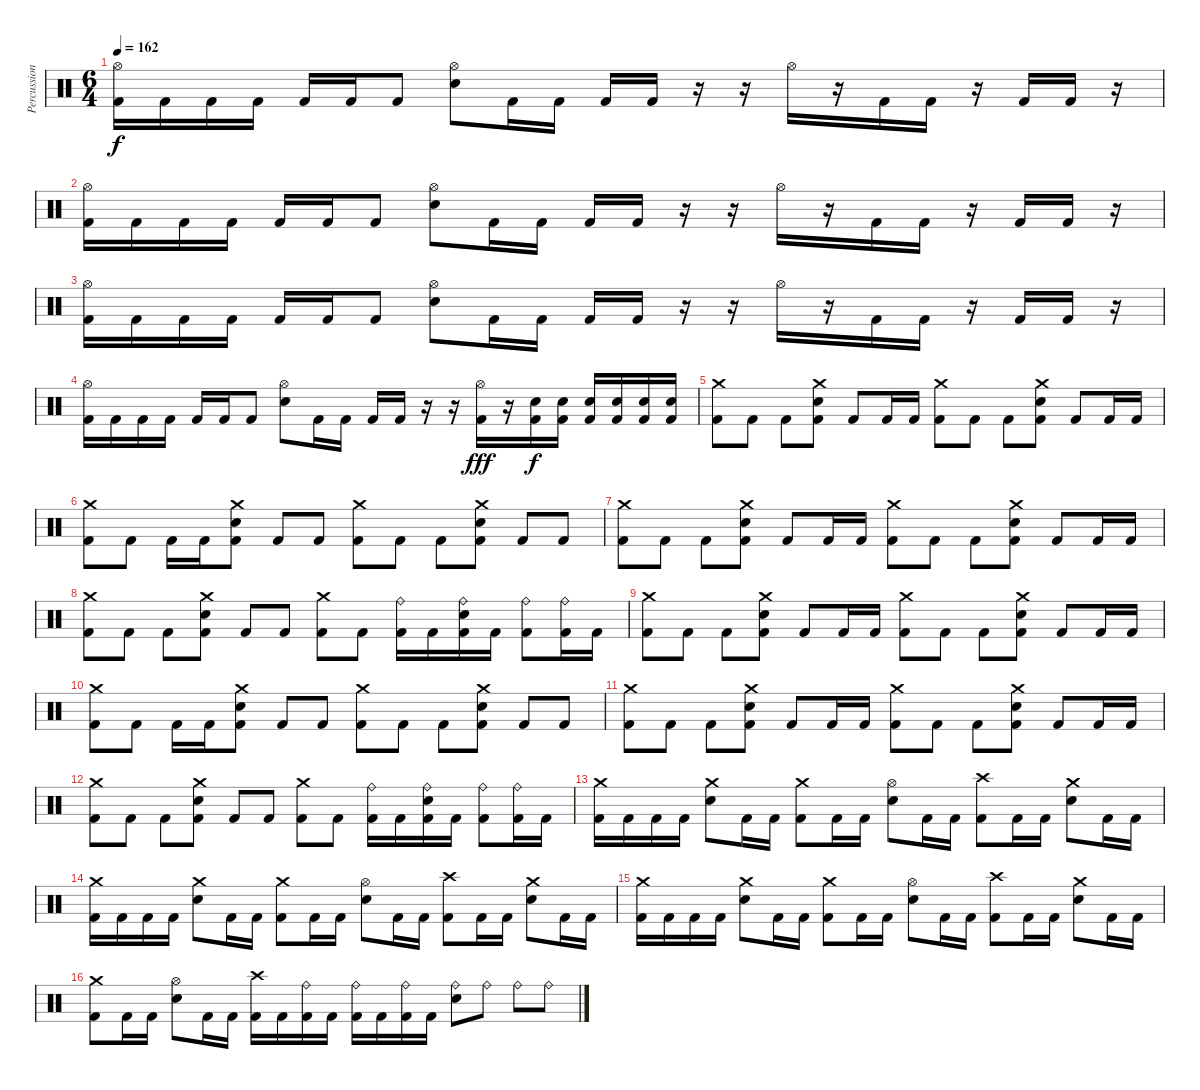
\track ("Percussion" "Percussion") {instrument percussion}
\staff {score}
\articulation defaults
\ts (6 4)
\tempo 162
\clef neutral
\ks c
("Hi-Hat (open)" "Kick (hit) 2").16{dy f} "Kick (hit) 2".16 "Kick (hit) 2".16 "Kick (hit) 2".16 "Kick (hit) 2".16 "Kick (hit) 2".16 "Kick (hit) 2".8 ("Hi-Hat (open)" "Electric Snare (hit)").8 "Kick (hit) 2".16 "Kick (hit) 2".16 "Kick (hit) 2".16 "Kick (hit) 2".16 r.16 r.16 "Hi-Hat (open)".16 r.16 "Kick (hit) 2".16 "Kick (hit) 2".16 r.16 "Kick (hit) 2".16 "Kick (hit) 2".16 r.16 |
("Hi-Hat (open)" "Kick (hit) 2").16 "Kick (hit) 2".16 "Kick (hit) 2".16 "Kick (hit) 2".16 "Kick (hit) 2".16 "Kick (hit) 2".16 "Kick (hit) 2".8 ("Hi-Hat (open)" "Electric Snare (hit)").8 "Kick (hit) 2".16 "Kick (hit) 2".16 "Kick (hit) 2".16 "Kick (hit) 2".16 r.16 r.16 "Hi-Hat (open)".16 r.16 "Kick (hit) 2".16 "Kick (hit) 2".16 r.16 "Kick (hit) 2".16 "Kick (hit) 2".16 r.16 |
("Hi-Hat (open)" "Kick (hit) 2").16 "Kick (hit) 2".16 "Kick (hit) 2".16 "Kick (hit) 2".16 "Kick (hit) 2".16 "Kick (hit) 2".16 "Kick (hit) 2".8 ("Hi-Hat (open)" "Electric Snare (hit)").8 "Kick (hit) 2".16 "Kick (hit) 2".16 "Kick (hit) 2".16 "Kick (hit) 2".16 r.16 r.16 "Hi-Hat (open)".16 r.16 "Kick (hit) 2".16 "Kick (hit) 2".16 r.16 "Kick (hit) 2".16 "Kick (hit) 2".16 r.16 |
("Hi-Hat (open)" "Kick (hit) 2").16 "Kick (hit) 2".16 "Kick (hit) 2".16 "Kick (hit) 2".16 "Kick (hit) 2".16 "Kick (hit) 2".16 "Kick (hit) 2".8 ("Hi-Hat (open)" "Electric Snare (hit)").8 "Kick (hit) 2".16 "Kick (hit) 2".16 "Kick (hit) 2".16 "Kick (hit) 2".16 r.16 r.16 ("Hi-Hat (open)" "Kick (hit) 2").16{dy fff} r.16 ("Electric Snare (hit)" "Kick (hit) 2").16{dy f} ("Electric Snare (hit)" "Kick (hit) 2").16 ("Electric Snare (hit)" "Kick (hit) 2").16 ("Electric Snare (hit)" "Kick (hit) 2").16 ("Electric Snare (hit)" "Kick (hit) 2").16 ("Electric Snare (hit)" "Kick (hit) 2").16 |
("Crash medium (hit)" "Kick (hit) 2").8 "Kick (hit) 2".8 "Kick (hit) 2".8 ("Crash medium (hit)" "Electric Snare (hit)" "Kick (hit) 2").8 "Kick (hit) 2".8 "Kick (hit) 2".16 "Kick (hit) 2".16 ("Crash medium (hit)" "Kick (hit) 2").8 "Kick (hit) 2".8 "Kick (hit) 2".8 ("Crash medium (hit)" "Electric Snare (hit)" "Kick (hit) 2").8 "Kick (hit) 2".8 "Kick (hit) 2".16 "Kick (hit) 2".16 |
("Crash medium (hit)" "Kick (hit) 2").8 "Kick (hit) 2".8 "Kick (hit) 2".16 "Kick (hit) 2".16 ("Crash medium (hit)" "Kick (hit) 2" "Electric Snare (hit)").8 "Kick (hit) 2".8 "Kick (hit) 2".8 ("Crash medium (hit)" "Kick (hit) 2").8 "Kick (hit) 2".8 "Kick (hit) 2".8 ("Crash medium (hit)" "Kick (hit) 2" "Electric Snare (hit)").8 "Kick (hit) 2".8 "Kick (hit) 2".8 |
("Crash medium (hit)" "Kick (hit) 2").8 "Kick (hit) 2".8 "Kick (hit) 2".8 ("Crash medium (hit)" "Electric Snare (hit)" "Kick (hit) 2").8 "Kick (hit) 2".8 "Kick (hit) 2".16 "Kick (hit) 2".16 ("Crash medium (hit)" "Kick (hit) 2").8 "Kick (hit) 2".8 "Kick (hit) 2".8 ("Crash medium (hit)" "Electric Snare (hit)" "Kick (hit) 2").8 "Kick (hit) 2".8 "Kick (hit) 2".16 "Kick (hit) 2".16 |
("Crash medium (hit)" "Kick (hit) 2").8 "Kick (hit) 2".8 "Kick (hit) 2".8 ("Crash medium (hit)" "Kick (hit) 2" "Electric Snare (hit)").8 "Kick (hit) 2".8 "Kick (hit) 2".8 ("Crash medium (hit)" "Kick (hit) 2").8 "Kick (hit) 2".8 ("Ride (bell)" "Kick (hit) 2").16 "Kick (hit) 2".16 ("Ride (bell)" "Kick (hit) 2" "Electric Snare (hit)").16 "Kick (hit) 2".16 ("Ride (bell)" "Kick (hit) 2").8 ("Ride (bell)" "Kick (hit) 2").16 "Kick (hit) 2".16 |
("Crash medium (hit)" "Kick (hit) 2").8 "Kick (hit) 2".8 "Kick (hit) 2".8 ("Crash medium (hit)" "Electric Snare (hit)" "Kick (hit) 2").8 "Kick (hit) 2".8 "Kick (hit) 2".16 "Kick (hit) 2".16 ("Crash medium (hit)" "Kick (hit) 2").8 "Kick (hit) 2".8 "Kick (hit) 2".8 ("Crash medium (hit)" "Electric Snare (hit)" "Kick (hit) 2").8 "Kick (hit) 2".8 "Kick (hit) 2".16 "Kick (hit) 2".16 |
("Crash medium (hit)" "Kick (hit) 2").8 "Kick (hit) 2".8 "Kick (hit) 2".16 "Kick (hit) 2".16 ("Crash medium (hit)" "Kick (hit) 2" "Electric Snare (hit)").8 "Kick (hit) 2".8 "Kick (hit) 2".8 ("Crash medium (hit)" "Kick (hit) 2").8 "Kick (hit) 2".8 "Kick (hit) 2".8 ("Crash medium (hit)" "Kick (hit) 2" "Electric Snare (hit)").8 "Kick (hit) 2".8 "Kick (hit) 2".8 |
("Crash medium (hit)" "Kick (hit) 2").8 "Kick (hit) 2".8 "Kick (hit) 2".8 ("Crash medium (hit)" "Electric Snare (hit)" "Kick (hit) 2").8 "Kick (hit) 2".8 "Kick (hit) 2".16 "Kick (hit) 2".16 ("Crash medium (hit)" "Kick (hit) 2").8 "Kick (hit) 2".8 "Kick (hit) 2".8 ("Crash medium (hit)" "Electric Snare (hit)" "Kick (hit) 2").8 "Kick (hit) 2".8 "Kick (hit) 2".16 "Kick (hit) 2".16 |
("Crash medium (hit)" "Kick (hit) 2").8 "Kick (hit) 2".8 "Kick (hit) 2".8 ("Crash medium (hit)" "Kick (hit) 2" "Electric Snare (hit)").8 "Kick (hit) 2".8 "Kick (hit) 2".8 ("Crash medium (hit)" "Kick (hit) 2").8 "Kick (hit) 2".8 ("Ride (bell)" "Kick (hit) 2").16 "Kick (hit) 2".16 ("Ride (bell)" "Kick (hit) 2" "Electric Snare (hit)").16 "Kick (hit) 2".16 ("Ride (bell)" "Kick (hit) 2").8 ("Ride (bell)" "Kick (hit) 2").16 "Kick (hit) 2".16 |
("Crash medium (hit)" "Kick (hit) 2").16 "Kick (hit) 2".16 "Kick (hit) 2".16 "Kick (hit) 2".16 ("Crash medium (hit)" "Electric Snare (hit)").8 "Kick (hit) 2".16 "Kick (hit) 2".16 ("Crash medium (hit)" "Kick (hit) 2").8 "Kick (hit) 2".16 "Kick (hit) 2".16 ("Hi-Hat (open)" "Electric Snare (hit)").8 "Kick (hit) 2".16 "Kick (hit) 2".16 ("Crash high (hit)" "Kick (hit) 2").8 "Kick (hit) 2".16 "Kick (hit) 2".16 ("Crash medium (hit)" "Electric Snare (hit)").8 "Kick (hit) 2".16 "Kick (hit) 2".16 |
("Crash medium (hit)" "Kick (hit) 2").16 "Kick (hit) 2".16 "Kick (hit) 2".16 "Kick (hit) 2".16 ("Crash medium (hit)" "Electric Snare (hit)").8 "Kick (hit) 2".16 "Kick (hit) 2".16 ("Crash medium (hit)" "Kick (hit) 2").8 "Kick (hit) 2".16 "Kick (hit) 2".16 ("Hi-Hat (open)" "Electric Snare (hit)").8 "Kick (hit) 2".16 "Kick (hit) 2".16 ("Crash high (hit)" "Kick (hit) 2").8 "Kick (hit) 2".16 "Kick (hit) 2".16 ("Crash medium (hit)" "Electric Snare (hit)").8 "Kick (hit) 2".16 "Kick (hit) 2".16 |
("Crash medium (hit)" "Kick (hit) 2").16 "Kick (hit) 2".16 "Kick (hit) 2".16 "Kick (hit) 2".16 ("Crash medium (hit)" "Electric Snare (hit)").8 "Kick (hit) 2".16 "Kick (hit) 2".16 ("Crash medium (hit)" "Kick (hit) 2").8 "Kick (hit) 2".16 "Kick (hit) 2".16 ("Hi-Hat (open)" "Electric Snare (hit)").8 "Kick (hit) 2".16 "Kick (hit) 2".16 ("Crash high (hit)" "Kick (hit) 2").8 "Kick (hit) 2".16 "Kick (hit) 2".16 ("Crash medium (hit)" "Electric Snare (hit)").8 "Kick (hit) 2".16 "Kick (hit) 2".16 |
("Crash medium (hit)" "Kick (hit) 2").8 "Kick (hit) 2".16 "Kick (hit) 2".16 ("Hi-Hat (open)" "Electric Snare (hit)").8 "Kick (hit) 2".16 "Kick (hit) 2".16 ("Crash high (hit)" "Kick (hit) 2").16 "Kick (hit) 2".16 ("Ride (bell)" "Kick (hit) 2").16 "Kick (hit) 2".16 ("Ride (bell)" "Kick (hit) 2").16 "Kick (hit) 2".16 ("Ride (bell)" "Kick (hit) 2").16 "Kick (hit) 2".16 ("Ride (bell)" "Electric Snare (hit)").8 "Ride (bell)".8 "Ride (bell)".8 "Ride (bell)".8
